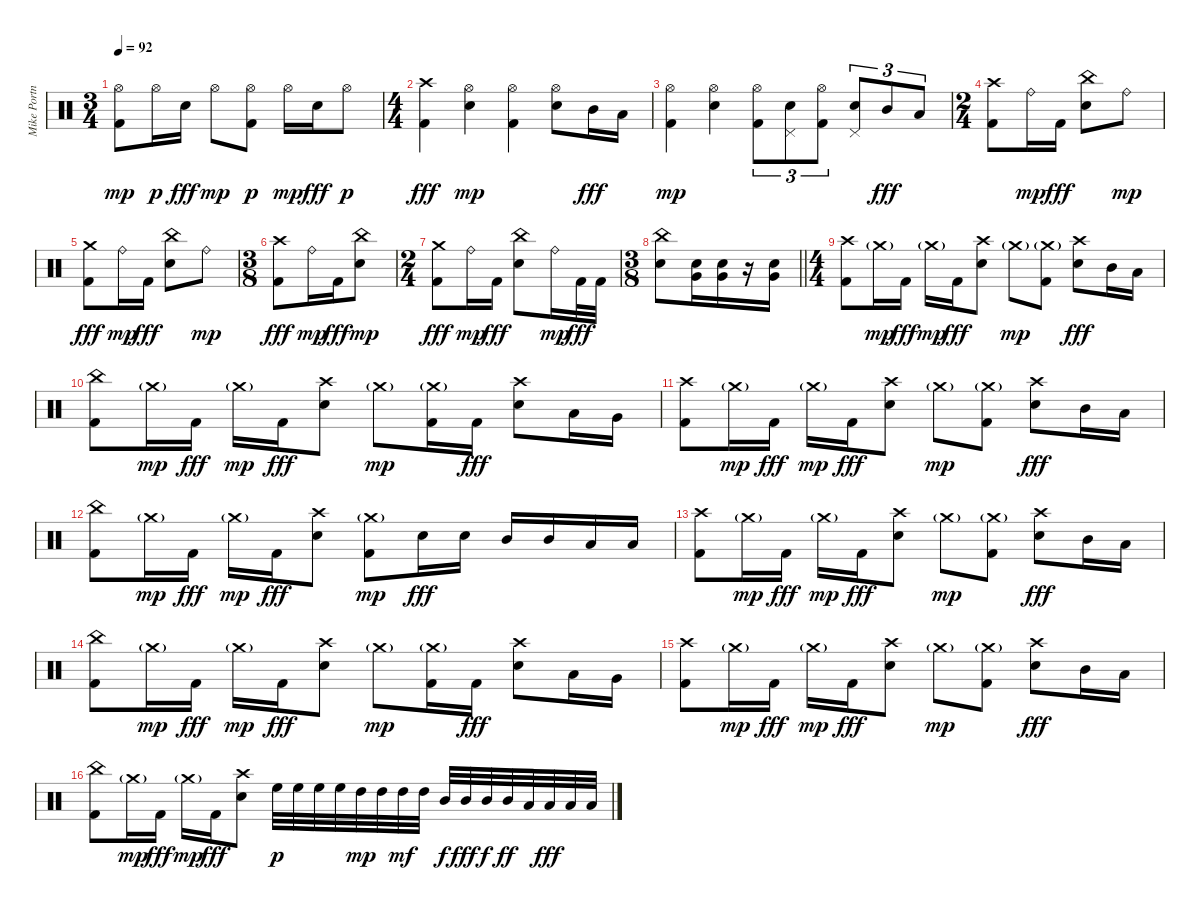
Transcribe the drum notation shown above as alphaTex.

\track ("Mike Portnoy" "Mike Portn") {instrument percussion}
\staff {score}
\articulation defaults
\ts (3 4)
\tempo 92
\clef neutral
\ks c
("Kick (hit) 2" "Hi-Hat (open)").8{dy mp} "Hi-Hat (open)".16{dy p} "Electric Snare (hit)".16{dy fff} "Hi-Hat (open)".8{dy mp} ("Kick (hit) 2" "Hi-Hat (open)").8{dy p} "Hi-Hat (open)".16{dy mp} "Electric Snare (hit)".16{dy fff} "Hi-Hat (open)".8{dy p} |
\ts (4 4)
("Kick (hit) 2" "Crash high (hit)").4{dy fff} ("Electric Snare (hit)" "Hi-Hat (open)").4{dy mp} ("Kick (hit) 2" "Hi-Hat (open)").4 ("Electric Snare (hit)" "Hi-Hat (open)").8 "Mid Tom (hit)".16{dy fff} "Low Tom (hit)".16 |
("Kick (hit) 2" "Hi-Hat (open)").4{dy mp} ("Electric Snare (hit)" "Hi-Hat (open)").4 ("Kick (hit) 2" "Hi-Hat (open)").8{tu (3 2)} ("Electric Snare (hit)" "Pedal Hi-Hat (hit)").8{tu (3 2)} ("Kick (hit) 2" "Hi-Hat (open)").8{tu (3 2)} ("Electric Snare (hit)" "Pedal Hi-Hat (hit)").8{tu (3 2)} "Mid Tom (hit)".8{tu (3 2) dy fff} "Low Tom (hit)".8{tu (3 2)} |
\ts (2 4)
("Kick (hit) 2" "Crash high (hit)").8 "Ride (bell)".16{dy mp} "Kick (hit) 2".16{dy fff} ("Electric Snare (hit)" "China (hit)").8 "Ride (bell)".8{dy mp} |
("Kick (hit) 2" "Crash medium (hit)").8{dy fff} "Ride (bell)".16{dy mp} "Kick (hit) 2".16{dy fff} ("Electric Snare (hit)" "China (hit)").8 "Ride (bell)".8{dy mp} |
\ts (3 8)
("Kick (hit) 2" "Crash high (hit)").8{dy fff} "Ride (bell)".16{dy mp} "Kick (hit) 2".16{dy fff} ("Electric Snare (hit)" "China (hit)").8{dy mp} |
\ts (2 4)
("Kick (hit) 2" "Crash medium (hit)").8{dy fff} "Ride (bell)".16{dy mp} "Kick (hit) 2".16{dy fff} ("Electric Snare (hit)" "China (hit)").8 "Ride (bell)".16{dy mp} "Kick (hit) 2".32{dy fff} "Kick (hit) 2".32 |
\ts (3 8)
\barLineRight lightlight
("Electric Snare (hit)" "China (hit)").8 ("Electric Snare (hit)" "Very Low Tom (hit)").16 ("Electric Snare (hit)" "Very Low Tom (hit)").16 r.16 ("Electric Snare (hit)" "Very Low Tom (hit)").16 |
\ts (4 4)
("Kick (hit) 2" "Crash high (hit)").8 "Crash medium (hit)"{g}.16{dy mp} "Kick (hit) 2".16{dy fff} "Crash medium (hit)"{g}.16{dy mp} "Kick (hit) 2".16{dy fff} ("Electric Snare (hit)" "Crash high (hit)").8 "Crash medium (hit)"{g}.8{dy mp} ("Kick (hit) 2" "Crash medium (hit)"{g}).8 ("Electric Snare (hit)" "Crash high (hit)").8{dy fff} "Mid Tom (hit)".16 "Low Tom (hit)".16 |
("Kick (hit) 2" "China (hit)").8 "Crash medium (hit)"{g}.16{dy mp} "Kick (hit) 2".16{dy fff} "Crash medium (hit)"{g}.16{dy mp} "Kick (hit) 2".16{dy fff} ("Electric Snare (hit)" "Crash high (hit)").8 "Crash medium (hit)"{g}.8{dy mp} ("Kick (hit) 2" "Crash medium (hit)"{g}).16 "Kick (hit) 2".16{dy fff} ("Electric Snare (hit)" "Crash high (hit)").8 "Low Tom (hit)".16 "Very Low Tom (hit)".16 |
("Kick (hit) 2" "Crash high (hit)").8 "Crash medium (hit)"{g}.16{dy mp} "Kick (hit) 2".16{dy fff} "Crash medium (hit)"{g}.16{dy mp} "Kick (hit) 2".16{dy fff} ("Electric Snare (hit)" "Crash high (hit)").8 "Crash medium (hit)"{g}.8{dy mp} ("Kick (hit) 2" "Crash medium (hit)"{g}).8 ("Electric Snare (hit)" "Crash high (hit)").8{dy fff} "Mid Tom (hit)".16 "Low Tom (hit)".16 |
("Kick (hit) 2" "China (hit)").8 "Crash medium (hit)"{g}.16{dy mp} "Kick (hit) 2".16{dy fff} "Crash medium (hit)"{g}.16{dy mp} "Kick (hit) 2".16{dy fff} ("Electric Snare (hit)" "Crash high (hit)").8 ("Kick (hit) 2" "Crash medium (hit)"{g}).8{dy mp} "Electric Snare (hit)".16{dy fff} "Electric Snare (hit)".16 "Mid Tom (hit)".16 "Mid Tom (hit)".16 "Low Tom (hit)".16 "Low Tom (hit)".16 |
("Kick (hit) 2" "Crash high (hit)").8 "Crash medium (hit)"{g}.16{dy mp} "Kick (hit) 2".16{dy fff} "Crash medium (hit)"{g}.16{dy mp} "Kick (hit) 2".16{dy fff} ("Electric Snare (hit)" "Crash high (hit)").8 "Crash medium (hit)"{g}.8{dy mp} ("Kick (hit) 2" "Crash medium (hit)"{g}).8 ("Electric Snare (hit)" "Crash high (hit)").8{dy fff} "Mid Tom (hit)".16 "Low Tom (hit)".16 |
("Kick (hit) 2" "China (hit)").8 "Crash medium (hit)"{g}.16{dy mp} "Kick (hit) 2".16{dy fff} "Crash medium (hit)"{g}.16{dy mp} "Kick (hit) 2".16{dy fff} ("Electric Snare (hit)" "Crash high (hit)").8 "Crash medium (hit)"{g}.8{dy mp} ("Kick (hit) 2" "Crash medium (hit)"{g}).16 "Kick (hit) 2".16{dy fff} ("Electric Snare (hit)" "Crash high (hit)").8 "Low Tom (hit)".16 "Very Low Tom (hit)".16 |
("Kick (hit) 2" "Crash high (hit)").8 "Crash medium (hit)"{g}.16{dy mp} "Kick (hit) 2".16{dy fff} "Crash medium (hit)"{g}.16{dy mp} "Kick (hit) 2".16{dy fff} ("Electric Snare (hit)" "Crash high (hit)").8 "Crash medium (hit)"{g}.8{dy mp} ("Kick (hit) 2" "Crash medium (hit)"{g}).8 ("Electric Snare (hit)" "Crash high (hit)").8{dy fff} "Mid Tom (hit)".16 "Low Tom (hit)".16 |
("Kick (hit) 2" "China (hit)").8 "Crash medium (hit)"{g}.16{dy mp} "Kick (hit) 2".16{dy fff} "Crash medium (hit)"{g}.16{dy mp} "Kick (hit) 2".16{dy fff} ("Electric Snare (hit)" "Crash high (hit)").8 "High Floor Tom (hit)".32{dy p} "High Floor Tom (hit)".32 "High Floor Tom (hit)".32 "High Floor Tom (hit)".32 "High Tom (hit)".32{dy mp} "High Tom (hit)".32 "High Tom (hit)".32{dy mf} "High Tom (hit)".32 "Mid Tom (hit)".32{dy f} "Mid Tom (hit)".32{dy fff} "Mid Tom (hit)".32{dy f} "Mid Tom (hit)".32{dy ff} "Low Tom (hit)".32 "Low Tom (hit)".32{dy fff} "Low Tom (hit)".32 "Low Tom (hit)".32
